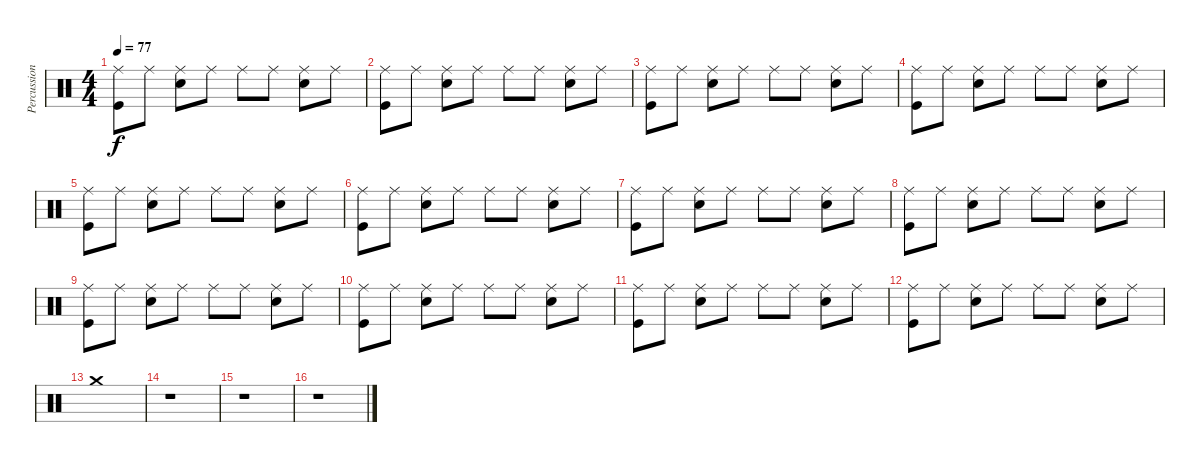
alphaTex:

\track ("Percussions" "Percussion") {instrument percussion}
\staff {score}
\articulation defaults
\ts (4 4)
\tempo 77
\clef neutral
\ks c
("Ride (middle)" "Kick (hit)").8{dy f} "Ride (middle)".8 ("Ride (middle)" "Electric Snare (hit)").8 "Ride (middle)".8 "Ride (middle)".8 "Ride (middle)".8 ("Ride (middle)" "Electric Snare (hit)").8 "Ride (middle)".8 |
("Ride (middle)" "Kick (hit)").8 "Ride (middle)".8 ("Ride (middle)" "Electric Snare (hit)").8 "Ride (middle)".8 "Ride (middle)".8 "Ride (middle)".8 ("Ride (middle)" "Electric Snare (hit)").8 "Ride (middle)".8 |
("Ride (middle)" "Kick (hit)").8 "Ride (middle)".8 ("Ride (middle)" "Electric Snare (hit)").8 "Ride (middle)".8 "Ride (middle)".8 "Ride (middle)".8 ("Ride (middle)" "Electric Snare (hit)").8 "Ride (middle)".8 |
("Ride (middle)" "Kick (hit)").8 "Ride (middle)".8 ("Ride (middle)" "Electric Snare (hit)").8 "Ride (middle)".8 "Ride (middle)".8 "Ride (middle)".8 ("Ride (middle)" "Electric Snare (hit)").8 "Ride (middle)".8 |
("Ride (middle)" "Kick (hit)").8 "Ride (middle)".8 ("Ride (middle)" "Electric Snare (hit)").8 "Ride (middle)".8 "Ride (middle)".8 "Ride (middle)".8 ("Ride (middle)" "Electric Snare (hit)").8 "Ride (middle)".8 |
("Ride (middle)" "Kick (hit)").8 "Ride (middle)".8 ("Ride (middle)" "Electric Snare (hit)").8 "Ride (middle)".8 "Ride (middle)".8 "Ride (middle)".8 ("Ride (middle)" "Electric Snare (hit)").8 "Ride (middle)".8 |
("Ride (middle)" "Kick (hit)").8 "Ride (middle)".8 ("Ride (middle)" "Electric Snare (hit)").8 "Ride (middle)".8 "Ride (middle)".8 "Ride (middle)".8 ("Ride (middle)" "Electric Snare (hit)").8 "Ride (middle)".8 |
("Ride (middle)" "Kick (hit)").8 "Ride (middle)".8 ("Ride (middle)" "Electric Snare (hit)").8 "Ride (middle)".8 "Ride (middle)".8 "Ride (middle)".8 ("Ride (middle)" "Electric Snare (hit)").8 "Ride (middle)".8 |
("Ride (middle)" "Kick (hit)").8 "Ride (middle)".8 ("Ride (middle)" "Electric Snare (hit)").8 "Ride (middle)".8 "Ride (middle)".8 "Ride (middle)".8 ("Ride (middle)" "Electric Snare (hit)").8 "Ride (middle)".8 |
("Ride (middle)" "Kick (hit)").8 "Ride (middle)".8 ("Ride (middle)" "Electric Snare (hit)").8 "Ride (middle)".8 "Ride (middle)".8 "Ride (middle)".8 ("Ride (middle)" "Electric Snare (hit)").8 "Ride (middle)".8 |
("Ride (middle)" "Kick (hit)").8 "Ride (middle)".8 ("Ride (middle)" "Electric Snare (hit)").8 "Ride (middle)".8 "Ride (middle)".8 "Ride (middle)".8 ("Ride (middle)" "Electric Snare (hit)").8 "Ride (middle)".8 |
("Ride (middle)" "Kick (hit)").8 "Ride (middle)".8 ("Ride (middle)" "Electric Snare (hit)").8 "Ride (middle)".8 "Ride (middle)".8 "Ride (middle)".8 ("Ride (middle)" "Electric Snare (hit)").8 "Ride (middle)".8 |
"Crash medium (hit)".1 |
r.1 |
r.1 |
r.1
